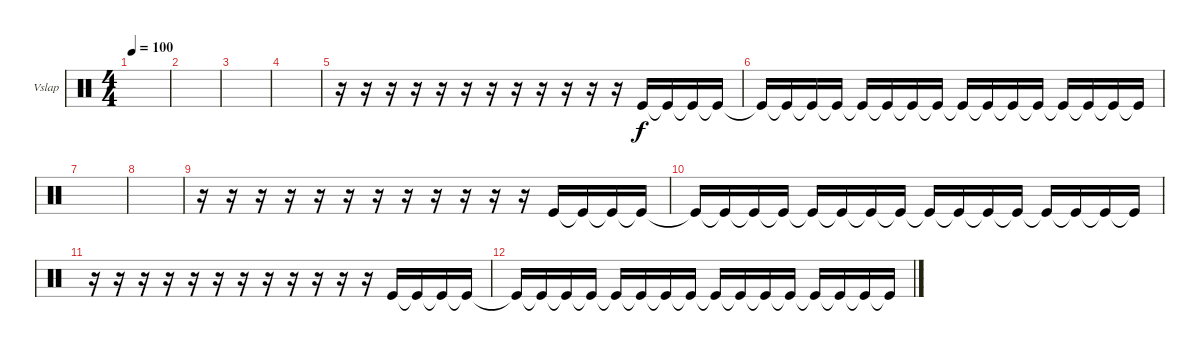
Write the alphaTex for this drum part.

\defaultSystemsLayout 4
\bracketExtendMode groupsimilarinstruments
\firstSystemTrackNameOrientation horizontal
\otherSystemsTrackNameOrientation horizontal
\track ("Vibraslap" "Vslap") {instrument percussion}
\staff {score}
\articulation defaults
\ts (4 4)
\tempo 100
\clef neutral
\scale
0.474178
\ks c
|
\scale
0.262911 |
\scale
0.262911 |
\scale
0.333333 |
\scale
0.333333 r.16 r.16 r.16 r.16 r.16 r.16 r.16 r.16 r.16 r.16 r.16 r.16 "Kick (hit)".16 "Kick (hit)"{t}.16 "Kick (hit)"{t}.16 "Kick (hit)"{t}.16 |
\scale
0.333333 "Kick (hit)"{t}.16 "Kick (hit)"{t}.16 "Kick (hit)"{t}.16 "Kick (hit)"{t}.16 "Kick (hit)"{t}.16 "Kick (hit)"{t}.16 "Kick (hit)"{t}.16 "Kick (hit)"{t}.16 "Kick (hit)"{t}.16 "Kick (hit)"{t}.16 "Kick (hit)"{t}.16 "Kick (hit)"{t}.16 "Kick (hit)"{t}.16 "Kick (hit)"{t}.16 "Kick (hit)"{t}.16 "Kick (hit)"{t}.16 |
\scale
0.333333 |
\scale
0.333333 |
\scale
0.333333 r.16 r.16 r.16 r.16 r.16 r.16 r.16 r.16 r.16 r.16 r.16 r.16 "Kick (hit)".16 "Kick (hit)"{t}.16 "Kick (hit)"{t}.16 "Kick (hit)"{t}.16 |
\scale
0.333333 "Kick (hit)"{t}.16 "Kick (hit)"{t}.16 "Kick (hit)"{t}.16 "Kick (hit)"{t}.16 "Kick (hit)"{t}.16 "Kick (hit)"{t}.16 "Kick (hit)"{t}.16 "Kick (hit)"{t}.16 "Kick (hit)"{t}.16 "Kick (hit)"{t}.16 "Kick (hit)"{t}.16 "Kick (hit)"{t}.16 "Kick (hit)"{t}.16 "Kick (hit)"{t}.16 "Kick (hit)"{t}.16 "Kick (hit)"{t}.16 |
\scale
0.333333 r.16 r.16 r.16 r.16 r.16 r.16 r.16 r.16 r.16 r.16 r.16 r.16 "Kick (hit)".16 "Kick (hit)"{t}.16 "Kick (hit)"{t}.16 "Kick (hit)"{t}.16 |
\scale
0.333333 "Kick (hit)"{t}.16 "Kick (hit)"{t}.16 "Kick (hit)"{t}.16 "Kick (hit)"{t}.16 "Kick (hit)"{t}.16 "Kick (hit)"{t}.16 "Kick (hit)"{t}.16 "Kick (hit)"{t}.16 "Kick (hit)"{t}.16 "Kick (hit)"{t}.16 "Kick (hit)"{t}.16 "Kick (hit)"{t}.16 "Kick (hit)"{t}.16 "Kick (hit)"{t}.16 "Kick (hit)"{t}.16 "Kick (hit)"{t}.16 |
\scale
0.333333 |
\scale
0.333333 |
\scale
0.333333 |
\scale
0.333333
